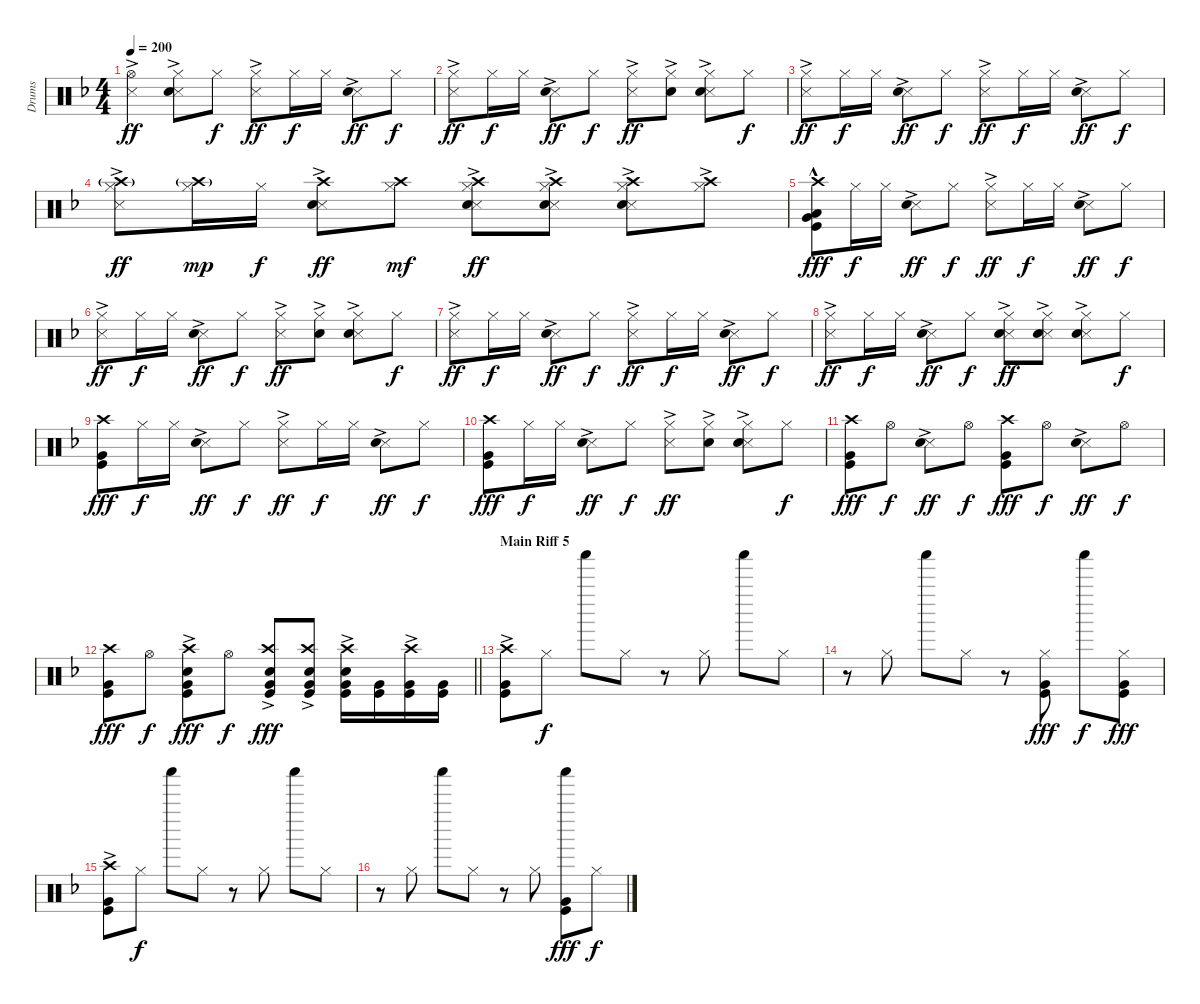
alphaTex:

\track ("Drums" "Drums") {instrument percussion bank 25}
\staff {score}
\articulation defaults
\ts (4 4)
\tempo 200
\clef neutral
\ks dminor
("Hi-Hat (open)"{ac} "Metronome (hit)"{ac}).4{dy ff} ("Hi-Hat (closed)" "Metronome (hit)"{ac} "Snare (hit) 2"{ac}).8 "Hi-Hat (closed)".8{dy f} ("Hi-Hat (closed)" "Metronome (hit)"{ac}).8{dy ff} "Hi-Hat (closed)".16{dy f} "Hi-Hat (closed)".16 ("Metronome (hit)"{ac} "Snare (hit) 2"{ac}).8{dy ff} "Hi-Hat (closed)".8{dy f} |
("Hi-Hat (closed)" "Metronome (hit)"{ac}).8{dy ff} "Hi-Hat (closed)".16{dy f} "Hi-Hat (closed)".16 ("Metronome (hit)"{ac} "Snare (hit) 2"{ac}).8{dy ff} "Hi-Hat (closed)".8{dy f} ("Hi-Hat (closed)" "Metronome (hit)"{ac}).8{dy ff} ("Hi-Hat (closed)" "Snare (hit) 2"{ac}).8 ("Hi-Hat (closed)" "Metronome (hit)"{ac} "Snare (hit) 2"{ac}).8 "Hi-Hat (closed)".8{dy f} |
("Hi-Hat (closed)" "Metronome (hit)"{ac}).8{dy ff} "Hi-Hat (closed)".16{dy f} "Hi-Hat (closed)".16 ("Metronome (hit)"{ac} "Snare (hit) 2"{ac}).8{dy ff} "Hi-Hat (closed)".8{dy f} ("Hi-Hat (closed)" "Metronome (hit)"{ac}).8{dy ff} "Hi-Hat (closed)".16{dy f} "Hi-Hat (closed)".16 ("Metronome (hit)"{ac} "Snare (hit) 2"{ac}).8{dy ff} "Hi-Hat (closed)".8{dy f} |
("Crash high (hit)"{g} "Hi-Hat (closed)" "Metronome (hit)"{ac}).8{dy ff} ("Crash high (hit)"{g} "Hi-Hat (closed)").16{dy mp} "Hi-Hat (closed)".16{dy f} ("Crash high (hit)" "Metronome (hit)"{ac} "Snare (hit) 2"{ac}).8{dy ff} ("Crash high (hit)" "Hi-Hat (closed)").8{dy mf} ("Crash high (hit)" "Hi-Hat (closed)" "Metronome (hit)"{ac} "Snare (hit) 2"{ac}).8{dy ff} ("Crash high (hit)" "Hi-Hat (closed)" "Metronome (hit)"{ac} "Snare (hit) 2"{ac}).8 ("Crash high (hit)"{ac} "Hi-Hat (closed)" "Metronome (hit)"{ac} "Snare (hit) 2"{ac}).8 ("Crash high (hit)"{ac} "Hi-Hat (closed)").8 |
("Crash high (hit)"{hac} "Very Low Tom (hit)"{hac} "Low Floor Tom (hit)"{hac} "Kick (hit)").8{dy fff} "Hi-Hat (closed)".16{dy f} "Hi-Hat (closed)".16 ("Metronome (hit)"{ac} "Snare (hit) 2"{ac}).8{dy ff} "Hi-Hat (closed)".8{dy f} ("Hi-Hat (closed)" "Metronome (hit)"{ac}).8{dy ff} "Hi-Hat (closed)".16{dy f} "Hi-Hat (closed)".16 ("Metronome (hit)"{ac} "Snare (hit) 2"{ac}).8{dy ff} "Hi-Hat (closed)".8{dy f} |
("Hi-Hat (closed)" "Metronome (hit)"{ac}).8{dy ff} "Hi-Hat (closed)".16{dy f} "Hi-Hat (closed)".16 ("Metronome (hit)"{ac} "Snare (hit) 2"{ac}).8{dy ff} "Hi-Hat (closed)".8{dy f} ("Hi-Hat (closed)" "Metronome (hit)"{ac}).8{dy ff} ("Hi-Hat (closed)" "Snare (hit) 2"{ac}).8 ("Hi-Hat (closed)" "Metronome (hit)"{ac} "Snare (hit) 2"{ac}).8 "Hi-Hat (closed)".8{dy f} |
("Hi-Hat (closed)" "Metronome (hit)"{ac}).8{dy ff} "Hi-Hat (closed)".16{dy f} "Hi-Hat (closed)".16 ("Metronome (hit)"{ac} "Snare (hit) 2"{ac}).8{dy ff} "Hi-Hat (closed)".8{dy f} ("Hi-Hat (closed)" "Metronome (hit)"{ac}).8{dy ff} "Hi-Hat (closed)".16{dy f} "Hi-Hat (closed)".16 ("Metronome (hit)"{ac} "Snare (hit) 2"{ac}).8{dy ff} "Hi-Hat (closed)".8{dy f} |
("Hi-Hat (closed)" "Metronome (hit)"{ac}).8{dy ff} "Hi-Hat (closed)".16{dy f} "Hi-Hat (closed)".16 ("Metronome (hit)"{ac} "Snare (hit) 2"{ac}).8{dy ff} "Hi-Hat (closed)".8{dy f} ("Hi-Hat (closed)" "Metronome (hit)"{ac} "Snare (hit) 2"{ac}).8{dy ff} ("Hi-Hat (closed)" "Metronome (hit)"{ac} "Snare (hit) 2"{ac}).8 ("Hi-Hat (closed)" "Metronome (hit)"{ac} "Snare (hit) 2"{ac}).8 "Hi-Hat (closed)".8{dy f} |
("Crash high (hit)" "Very Low Tom (hit)" "Kick (hit)").8{dy fff} "Hi-Hat (closed)".16{dy f} "Hi-Hat (closed)".16 ("Metronome (hit)"{ac} "Snare (hit) 2"{ac}).8{dy ff} "Hi-Hat (closed)".8{dy f} ("Hi-Hat (closed)" "Metronome (hit)"{ac}).8{dy ff} "Hi-Hat (closed)".16{dy f} "Hi-Hat (closed)".16 ("Metronome (hit)"{ac} "Snare (hit) 2"{ac}).8{dy ff} "Hi-Hat (closed)".8{dy f} |
("Crash high (hit)" "Very Low Tom (hit)" "Kick (hit)").8{dy fff} "Hi-Hat (closed)".16{dy f} "Hi-Hat (closed)".16 ("Metronome (hit)"{ac} "Snare (hit) 2"{ac}).8{dy ff} "Hi-Hat (closed)".8{dy f} ("Hi-Hat (closed)" "Metronome (hit)"{ac}).8{dy ff} ("Hi-Hat (closed)" "Snare (hit) 2"{ac}).8 ("Hi-Hat (closed)" "Metronome (hit)"{ac} "Snare (hit) 2"{ac}).8 "Hi-Hat (closed)".8{dy f} |
("Crash high (hit)" "Very Low Tom (hit)" "Kick (hit)").8{dy fff} "Hi-Hat (open)".8{dy f} ("Metronome (hit)"{ac} "Snare (hit) 2"{ac}).8{dy ff} "Hi-Hat (open)".8{dy f} ("Crash high (hit)" "Very Low Tom (hit)" "Kick (hit)").8{dy fff} "Hi-Hat (open)".8{dy f} ("Metronome (hit)"{ac} "Snare (hit) 2"{ac}).8{dy ff} "Hi-Hat (open)".8{dy f} |
\barLineRight lightlight
("Crash high (hit)" "Very Low Tom (hit)" "Kick (hit)").8{dy fff} "Hi-Hat (open)".8{dy f} ("Crash high (hit)" "Snare (hit) 2"{ac} "Very Low Tom (hit)" "Kick (hit)").8{dy fff} "Hi-Hat (open)".8{dy f} ("Crash high (hit)" "Snare (hit) 2"{ac} "Very Low Tom (hit)" "Kick (hit)").8{dy fff} ("Crash high (hit)" "Snare (hit) 2"{ac} "Very Low Tom (hit)" "Kick (hit)").8 ("Crash high (hit)"{ac} "Snare (hit) 2"{ac} "Very Low Tom (hit)" "Kick (hit)").16 ("Very Low Tom (hit)" "Kick (hit)").16 ("Crash high (hit)"{ac} "Very Low Tom (hit)" "Kick (hit)").16 ("Very Low Tom (hit)" "Kick (hit)").16 |
\section ("" "Main Riff 5")
("Crash high (hit)"{ac} "Very Low Tom (hit)" "Kick (hit)").8 "Hi-Hat (closed)".8{dy f} "Shaker (hit)".8 "Hi-Hat (closed)".8 r.8 "Hi-Hat (closed)".8 "Shaker (hit)".8 "Hi-Hat (closed)".8 |
r.8 "Hi-Hat (closed)".8 "Shaker (hit)".8 "Hi-Hat (closed)".8 r.8 ("Hi-Hat (closed)" "Very Low Tom (hit)" "Kick (hit)").8{dy fff} "Shaker (hit)".8{dy f} ("Hi-Hat (closed)" "Very Low Tom (hit)" "Kick (hit)").8{dy fff} |
("Crash high (hit)"{ac} "Very Low Tom (hit)" "Kick (hit)").8 "Hi-Hat (closed)".8{dy f} "Shaker (hit)".8 "Hi-Hat (closed)".8 r.8 "Hi-Hat (closed)".8 "Shaker (hit)".8 "Hi-Hat (closed)".8 |
r.8 "Hi-Hat (closed)".8 "Shaker (hit)".8 "Hi-Hat (closed)".8 r.8 "Hi-Hat (closed)".8 ("Shaker (hit)" "Very Low Tom (hit)" "Kick (hit)").8{dy fff} "Hi-Hat (closed)".8{dy f}
